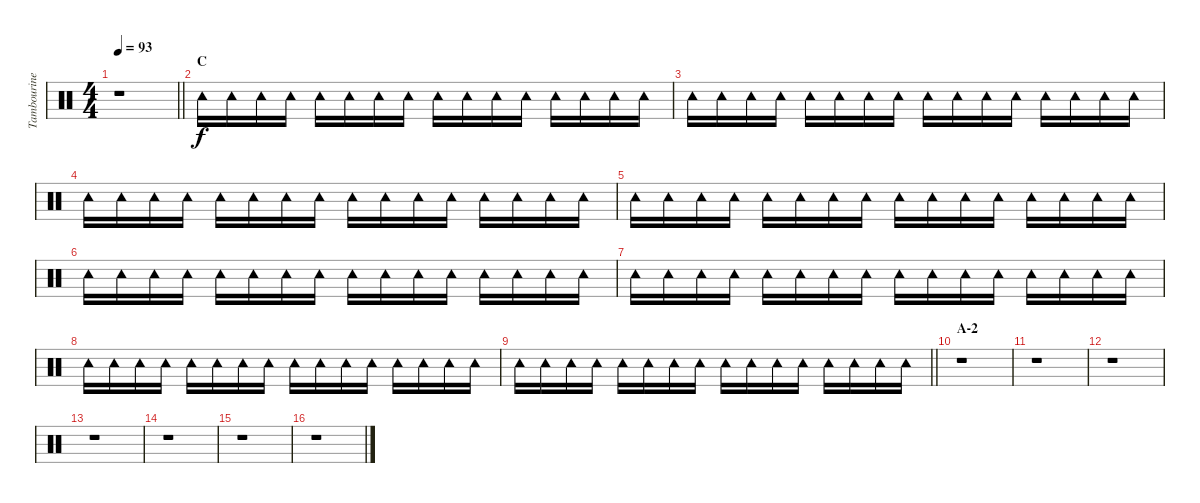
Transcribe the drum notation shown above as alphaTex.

\track ("Tambourine" "Tambourine") {instrument percussion}
\staff {score}
\articulation defaults
\ts (4 4)
\tempo 93
\clef neutral
\barLineRight lightlight
\ks c
r.1{dy f} |
\section ("" "C")
"Tambourine (hit)".16 "Tambourine (hit)".16 "Tambourine (hit)".16 "Tambourine (hit)".16 "Tambourine (hit)".16 "Tambourine (hit)".16 "Tambourine (hit)".16 "Tambourine (hit)".16 "Tambourine (hit)".16 "Tambourine (hit)".16 "Tambourine (hit)".16 "Tambourine (hit)".16 "Tambourine (hit)".16 "Tambourine (hit)".16 "Tambourine (hit)".16 "Tambourine (hit)".16 |
"Tambourine (hit)".16 "Tambourine (hit)".16 "Tambourine (hit)".16 "Tambourine (hit)".16 "Tambourine (hit)".16 "Tambourine (hit)".16 "Tambourine (hit)".16 "Tambourine (hit)".16 "Tambourine (hit)".16 "Tambourine (hit)".16 "Tambourine (hit)".16 "Tambourine (hit)".16 "Tambourine (hit)".16 "Tambourine (hit)".16 "Tambourine (hit)".16 "Tambourine (hit)".16 |
"Tambourine (hit)".16 "Tambourine (hit)".16 "Tambourine (hit)".16 "Tambourine (hit)".16 "Tambourine (hit)".16 "Tambourine (hit)".16 "Tambourine (hit)".16 "Tambourine (hit)".16 "Tambourine (hit)".16 "Tambourine (hit)".16 "Tambourine (hit)".16 "Tambourine (hit)".16 "Tambourine (hit)".16 "Tambourine (hit)".16 "Tambourine (hit)".16 "Tambourine (hit)".16 |
"Tambourine (hit)".16 "Tambourine (hit)".16 "Tambourine (hit)".16 "Tambourine (hit)".16 "Tambourine (hit)".16 "Tambourine (hit)".16 "Tambourine (hit)".16 "Tambourine (hit)".16 "Tambourine (hit)".16 "Tambourine (hit)".16 "Tambourine (hit)".16 "Tambourine (hit)".16 "Tambourine (hit)".16 "Tambourine (hit)".16 "Tambourine (hit)".16 "Tambourine (hit)".16 |
"Tambourine (hit)".16 "Tambourine (hit)".16 "Tambourine (hit)".16 "Tambourine (hit)".16 "Tambourine (hit)".16 "Tambourine (hit)".16 "Tambourine (hit)".16 "Tambourine (hit)".16 "Tambourine (hit)".16 "Tambourine (hit)".16 "Tambourine (hit)".16 "Tambourine (hit)".16 "Tambourine (hit)".16 "Tambourine (hit)".16 "Tambourine (hit)".16 "Tambourine (hit)".16 |
"Tambourine (hit)".16 "Tambourine (hit)".16 "Tambourine (hit)".16 "Tambourine (hit)".16 "Tambourine (hit)".16 "Tambourine (hit)".16 "Tambourine (hit)".16 "Tambourine (hit)".16 "Tambourine (hit)".16 "Tambourine (hit)".16 "Tambourine (hit)".16 "Tambourine (hit)".16 "Tambourine (hit)".16 "Tambourine (hit)".16 "Tambourine (hit)".16 "Tambourine (hit)".16 |
"Tambourine (hit)".16 "Tambourine (hit)".16 "Tambourine (hit)".16 "Tambourine (hit)".16 "Tambourine (hit)".16 "Tambourine (hit)".16 "Tambourine (hit)".16 "Tambourine (hit)".16 "Tambourine (hit)".16 "Tambourine (hit)".16 "Tambourine (hit)".16 "Tambourine (hit)".16 "Tambourine (hit)".16 "Tambourine (hit)".16 "Tambourine (hit)".16 "Tambourine (hit)".16 |
\barLineRight lightlight "Tambourine (hit)".16 "Tambourine (hit)".16 "Tambourine (hit)".16 "Tambourine (hit)".16 "Tambourine (hit)".16 "Tambourine (hit)".16 "Tambourine (hit)".16 "Tambourine (hit)".16 "Tambourine (hit)".16 "Tambourine (hit)".16 "Tambourine (hit)".16 "Tambourine (hit)".16 "Tambourine (hit)".16 "Tambourine (hit)".16 "Tambourine (hit)".16 "Tambourine (hit)".16
|
\section ("" "A-2")
r.1 |
r.1 |
r.1 |
r.1 |
r.1 |
r.1 |
r.1
